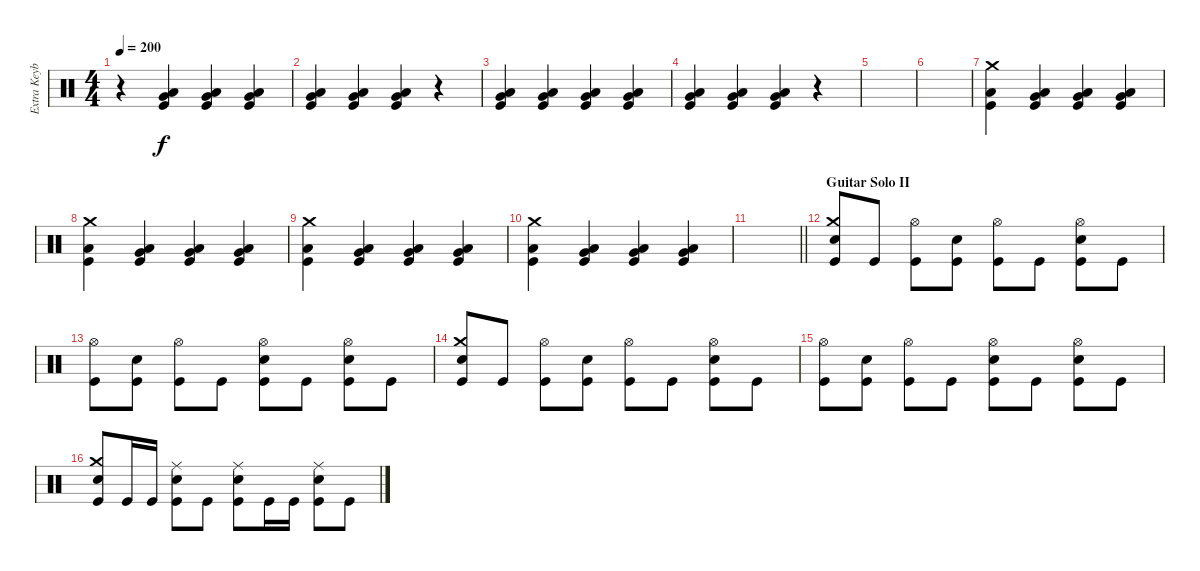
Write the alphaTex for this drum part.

\track ("Extra Keyboard" "Extra Keyb") {instrument percussion}
\staff {score}
\articulation defaults
\ts (4 4)
\tempo 200
\clef neutral
\ks c
r.4{dy f} ("Very Low Tom (hit)" "Low Tom (hit)" "Kick (hit)").4 ("Very Low Tom (hit)" "Low Tom (hit)" "Kick (hit)").4 ("Very Low Tom (hit)" "Low Tom (hit)" "Kick (hit)").4 |
("Low Floor Tom (hit)" "Very Low Tom (hit)" "Kick (hit)").4 ("Low Floor Tom (hit)" "Very Low Tom (hit)" "Kick (hit)").4 ("Low Floor Tom (hit)" "Very Low Tom (hit)" "Kick (hit)").4 r.4 |
("Very Low Tom (hit)" "Low Tom (hit)" "Kick (hit)").4 ("Very Low Tom (hit)" "Low Tom (hit)" "Kick (hit)").4 ("Very Low Tom (hit)" "Low Tom (hit)" "Kick (hit)").4 ("Very Low Tom (hit)" "Low Tom (hit)" "Kick (hit)").4 |
("Low Floor Tom (hit)" "Very Low Tom (hit)" "Kick (hit)").4 ("Low Floor Tom (hit)" "Very Low Tom (hit)" "Kick (hit)").4 ("Low Floor Tom (hit)" "Very Low Tom (hit)" "Kick (hit)").4 r.4 |
|
|
("Crash medium (hit)" "Low Tom (hit)" "Kick (hit)").4 ("Very Low Tom (hit)" "Low Tom (hit)" "Kick (hit)").4 ("Very Low Tom (hit)" "Low Tom (hit)" "Kick (hit)").4 ("Very Low Tom (hit)" "Low Tom (hit)" "Kick (hit)").4 |
("Crash medium (hit)" "Low Tom (hit)" "Kick (hit)").4 ("Very Low Tom (hit)" "Low Tom (hit)" "Kick (hit)").4 ("Very Low Tom (hit)" "Low Tom (hit)" "Kick (hit)").4 ("Very Low Tom (hit)" "Low Tom (hit)" "Kick (hit)").4 |
("Crash medium (hit)" "Low Tom (hit)" "Kick (hit)").4 ("Very Low Tom (hit)" "Low Tom (hit)" "Kick (hit)").4 ("Very Low Tom (hit)" "Low Tom (hit)" "Kick (hit)").4 ("Very Low Tom (hit)" "Low Tom (hit)" "Kick (hit)").4 |
("Crash medium (hit)" "Low Tom (hit)" "Kick (hit)").4 ("Very Low Tom (hit)" "Low Tom (hit)" "Kick (hit)").4 ("Very Low Tom (hit)" "Low Tom (hit)" "Kick (hit)").4 ("Very Low Tom (hit)" "Low Tom (hit)" "Kick (hit)").4 |
\barLineRight lightlight
|
\section ("" "Guitar Solo II")
("Crash medium (hit)" "Electric Snare (hit)" "Kick (hit)").8 "Kick (hit)".8 ("Hi-Hat (open)" "Kick (hit)").8 ("Electric Snare (hit)" "Kick (hit)").8 ("Hi-Hat (open)" "Kick (hit)").8 "Kick (hit)".8 ("Hi-Hat (open)" "Electric Snare (hit)" "Kick (hit)").8 "Kick (hit)".8 |
("Hi-Hat (open)" "Kick (hit)").8 ("Electric Snare (hit)" "Kick (hit)").8 ("Hi-Hat (open)" "Kick (hit)").8 "Kick (hit)".8 ("Hi-Hat (open)" "Electric Snare (hit)" "Kick (hit)").8 "Kick (hit)".8 ("Hi-Hat (open)" "Electric Snare (hit)" "Kick (hit)").8 "Kick (hit)".8 |
("Crash medium (hit)" "Electric Snare (hit)" "Kick (hit)").8 "Kick (hit)".8 ("Hi-Hat (open)" "Kick (hit)").8 ("Electric Snare (hit)" "Kick (hit)").8 ("Hi-Hat (open)" "Kick (hit)").8 "Kick (hit)".8 ("Hi-Hat (open)" "Electric Snare (hit)" "Kick (hit)").8 "Kick (hit)".8 |
("Hi-Hat (open)" "Kick (hit)").8 ("Electric Snare (hit)" "Kick (hit)").8 ("Hi-Hat (open)" "Kick (hit)").8 "Kick (hit)".8 ("Hi-Hat (open)" "Electric Snare (hit)" "Kick (hit)").8 "Kick (hit)".8 ("Hi-Hat (open)" "Electric Snare (hit)" "Kick (hit)").8 "Kick (hit)".8 |
("Crash medium (hit)" "Electric Snare (hit)" "Kick (hit)").8 "Kick (hit)".16 "Kick (hit)".16 ("Ride (middle)" "Electric Snare (hit)" "Kick (hit)").8 "Kick (hit)".8 ("Ride (middle)" "Electric Snare (hit)" "Kick (hit)").8 "Kick (hit)".16 "Kick (hit)".16 ("Ride (middle)" "Electric Snare (hit)" "Kick (hit)").8 "Kick (hit)".8
